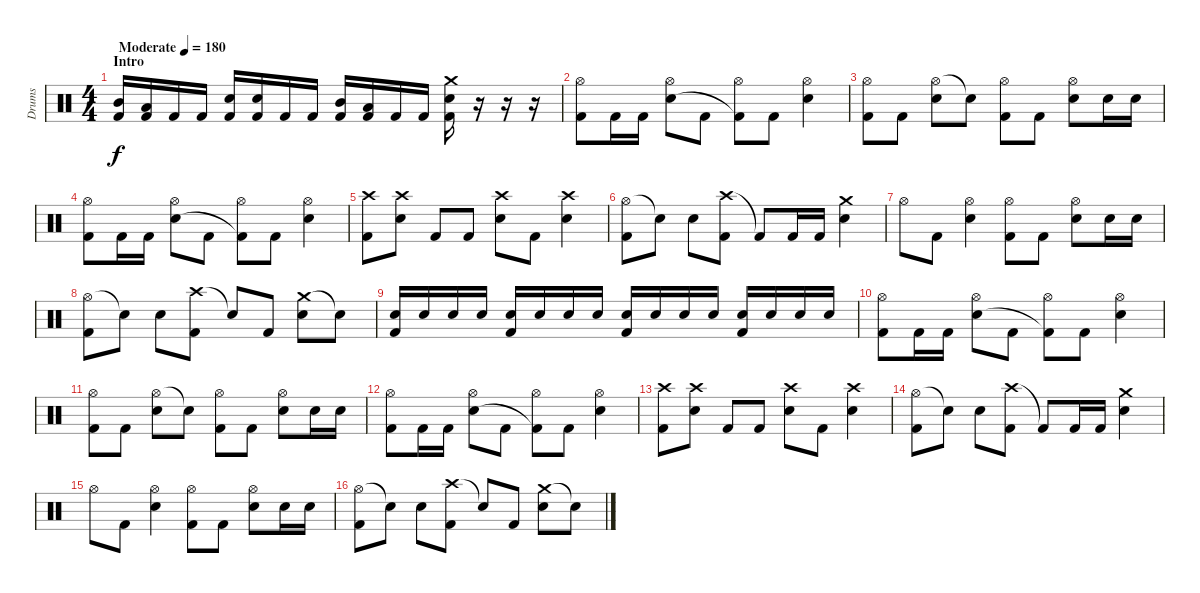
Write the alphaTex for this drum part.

\track ("Drums" "Drums") {instrument percussion}
\staff {score}
\articulation defaults
\ts (4 4)
\section ("" "Intro")
\tempo (180 "Moderate")
\clef neutral
\ks c
("Mid Tom (hit)" "Kick (hit) 2").16{dy f} ("Low Tom (hit)" "Kick (hit) 2").16 "Kick (hit) 2".16 "Kick (hit) 2".16 ("Electric Snare (hit)" "Kick (hit) 2").16 ("Electric Snare (hit)" "Kick (hit) 2").16 "Kick (hit) 2".16 "Kick (hit) 2".16 ("Mid Tom (hit)" "Kick (hit) 2").16 ("Low Tom (hit)" "Kick (hit) 2").16 "Kick (hit) 2".16 "Kick (hit) 2".16 ("Crash medium (hit)" "Electric Snare (hit)" "Kick (hit) 2").16 r.16 r.16 r.16 |
("Hi-Hat (open)" "Kick (hit) 2").8 "Kick (hit) 2".16 "Kick (hit) 2".16 ("Hi-Hat (open)" "Electric Snare (hit)").8 "Kick (hit) 2".8 ("Hi-Hat (open)" "Kick (hit) 2"{t}).8 "Kick (hit) 2".8 ("Hi-Hat (open)" "Electric Snare (hit)").4 |
("Hi-Hat (open)" "Kick (hit) 2").8 "Kick (hit) 2".8 ("Hi-Hat (open)" "Electric Snare (hit)").8 "Snare (hit)"{t}.8 ("Hi-Hat (open)" "Kick (hit) 2").8 "Kick (hit) 2".8 ("Hi-Hat (open)" "Electric Snare (hit)").8 "Electric Snare (hit)".16 "Electric Snare (hit)".16 |
("Hi-Hat (open)" "Kick (hit) 2").8 "Kick (hit) 2".16 "Kick (hit) 2".16 ("Hi-Hat (open)" "Electric Snare (hit)").8 "Kick (hit) 2".8 ("Hi-Hat (open)" "Kick (hit) 2"{t}).8 "Kick (hit) 2".8 ("Hi-Hat (open)" "Electric Snare (hit)").4 |
("Crash high (hit)" "Kick (hit) 2").8 ("Crash high (hit)" "Electric Snare (hit)").8 "Kick (hit) 2".8 "Kick (hit) 2".8 ("Crash high (hit)" "Electric Snare (hit)").8 "Kick (hit) 2".8 ("Crash high (hit)" "Electric Snare (hit)").4 |
("Hi-Hat (open)" "Kick (hit) 2").8 "Snare (hit)"{t}.8 "Electric Snare (hit)".8 ("Crash high (hit)" "Kick (hit) 2").8 "Kick (hit) 2"{t}.8 "Kick (hit) 2".16 "Kick (hit) 2".16 ("Crash medium (hit)" "Electric Snare (hit)").4 |
"Hi-Hat (open)".8 "Kick (hit) 2".8 ("Hi-Hat (open)" "Electric Snare (hit)").4 ("Hi-Hat (open)" "Kick (hit) 2").8 "Kick (hit) 2".8 ("Hi-Hat (open)" "Electric Snare (hit)").8 "Electric Snare (hit)".16 "Electric Snare (hit)".16 |
("Hi-Hat (open)" "Kick (hit) 2").8 "Snare (hit)"{t}.8 "Electric Snare (hit)".8 ("Crash high (hit)" "Kick (hit) 2").8 "Snare (hit)"{t}.8 "Kick (hit) 2".8 ("Crash medium (hit)" "Electric Snare (hit)").8 "Snare (hit)"{t}.8 |
("Electric Snare (hit)" "Kick (hit) 2").16 "Electric Snare (hit)".16 "Electric Snare (hit)".16 "Electric Snare (hit)".16 ("Electric Snare (hit)" "Kick (hit) 2").16 "Electric Snare (hit)".16 "Electric Snare (hit)".16 "Electric Snare (hit)".16 ("Electric Snare (hit)" "Kick (hit) 2").16 "Electric Snare (hit)".16 "Electric Snare (hit)".16 "Electric Snare (hit)".16 ("Electric Snare (hit)" "Kick (hit) 2").16 "Electric Snare (hit)".16 "Electric Snare (hit)".16 "Electric Snare (hit)".16 |
("Hi-Hat (open)" "Kick (hit) 2").8 "Kick (hit) 2".16 "Kick (hit) 2".16 ("Hi-Hat (open)" "Electric Snare (hit)").8 "Kick (hit) 2".8 ("Hi-Hat (open)" "Kick (hit) 2"{t}).8 "Kick (hit) 2".8 ("Hi-Hat (open)" "Electric Snare (hit)").4 |
("Hi-Hat (open)" "Kick (hit) 2").8 "Kick (hit) 2".8 ("Hi-Hat (open)" "Electric Snare (hit)").8 "Snare (hit)"{t}.8 ("Hi-Hat (open)" "Kick (hit) 2").8 "Kick (hit) 2".8 ("Hi-Hat (open)" "Electric Snare (hit)").8 "Electric Snare (hit)".16 "Electric Snare (hit)".16 |
("Hi-Hat (open)" "Kick (hit) 2").8 "Kick (hit) 2".16 "Kick (hit) 2".16 ("Hi-Hat (open)" "Electric Snare (hit)").8 "Kick (hit) 2".8 ("Hi-Hat (open)" "Kick (hit) 2"{t}).8 "Kick (hit) 2".8 ("Hi-Hat (open)" "Electric Snare (hit)").4 |
("Crash high (hit)" "Kick (hit) 2").8 ("Crash high (hit)" "Electric Snare (hit)").8 "Kick (hit) 2".8 "Kick (hit) 2".8 ("Crash high (hit)" "Electric Snare (hit)").8 "Kick (hit) 2".8 ("Crash high (hit)" "Electric Snare (hit)").4 |
("Hi-Hat (open)" "Kick (hit) 2").8 "Snare (hit)"{t}.8 "Electric Snare (hit)".8 ("Crash high (hit)" "Kick (hit) 2").8 "Kick (hit) 2"{t}.8 "Kick (hit) 2".16 "Kick (hit) 2".16 ("Crash medium (hit)" "Electric Snare (hit)").4 |
"Hi-Hat (open)".8 "Kick (hit) 2".8 ("Hi-Hat (open)" "Electric Snare (hit)").4 ("Hi-Hat (open)" "Kick (hit) 2").8 "Kick (hit) 2".8 ("Hi-Hat (open)" "Electric Snare (hit)").8 "Electric Snare (hit)".16 "Electric Snare (hit)".16 |
("Hi-Hat (open)" "Kick (hit) 2").8 "Snare (hit)"{t}.8 "Electric Snare (hit)".8 ("Crash high (hit)" "Kick (hit) 2").8 "Snare (hit)"{t}.8 "Kick (hit) 2".8 ("Crash medium (hit)" "Electric Snare (hit)").8 "Snare (hit)"{t}.8
